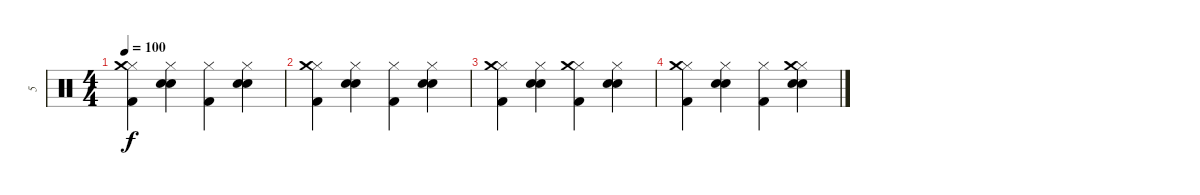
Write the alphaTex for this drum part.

\track ("5" "5") {instrument percussion}
\staff {score}
\articulation defaults
\ts (4 4)
\tempo 100
\clef neutral
\ks c
("Kick (hit) 2" "Hi-Hat (closed)" "Crash medium (hit)").4{dy f} ("Electric Snare (hit)" "Hand Clap (hit)" "Hi-Hat (closed)").4 ("Kick (hit) 2" "Hi-Hat (closed)").4 ("Electric Snare (hit)" "Hand Clap (hit)" "Hi-Hat (closed)").4 |
("Kick (hit) 2" "Hi-Hat (closed)" "Crash medium (hit)").4 ("Electric Snare (hit)" "Hand Clap (hit)" "Hi-Hat (closed)").4 ("Kick (hit) 2" "Hi-Hat (closed)").4 ("Electric Snare (hit)" "Hand Clap (hit)" "Hi-Hat (closed)").4 |
("Kick (hit) 2" "Hi-Hat (closed)" "Crash medium (hit)").4 ("Electric Snare (hit)" "Hand Clap (hit)" "Hi-Hat (closed)").4 ("Kick (hit) 2" "Hi-Hat (closed)" "Crash medium (hit)").4 ("Electric Snare (hit)" "Hand Clap (hit)" "Hi-Hat (closed)").4 |
("Kick (hit) 2" "Hi-Hat (closed)" "Crash medium (hit)").4 ("Electric Snare (hit)" "Hand Clap (hit)" "Hi-Hat (closed)").4 ("Kick (hit) 2" "Hi-Hat (closed)").4 ("Electric Snare (hit)" "Hand Clap (hit)" "Hi-Hat (closed)" "Crash medium (hit)").4
